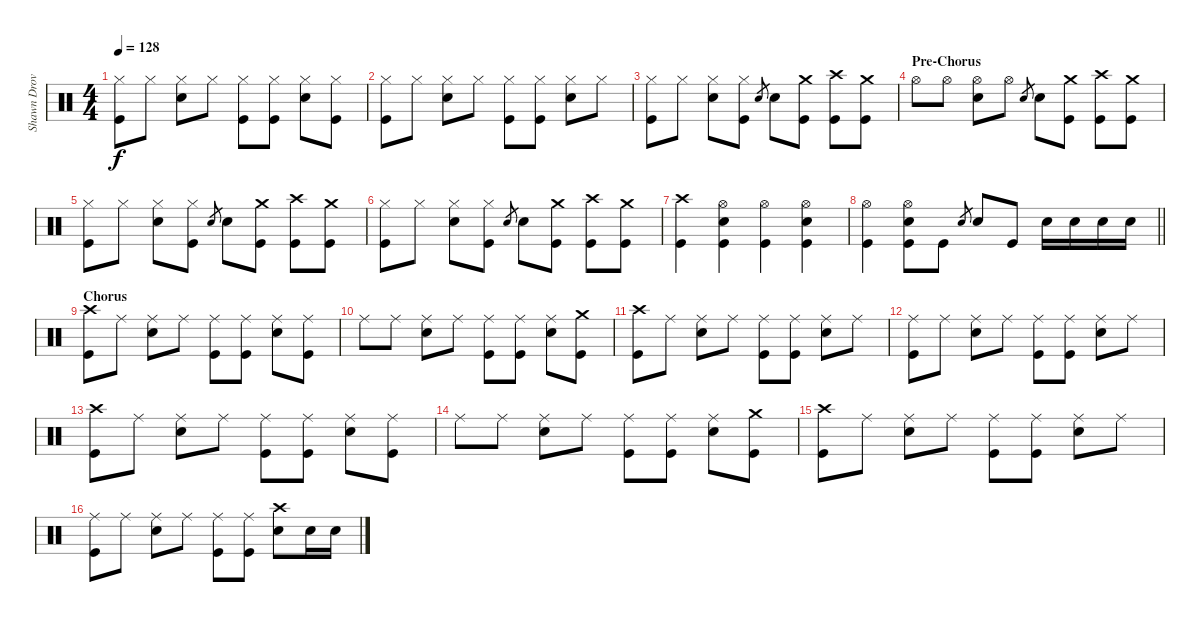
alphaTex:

\track ("Shawn Drover" "Shawn Drov") {instrument percussion}
\staff {score}
\articulation defaults
\ts (4 4)
\tempo 128
\clef neutral
\ks c
("Hi-Hat (closed)" "Kick (hit)").8{dy f} "Hi-Hat (closed)".8 ("Hi-Hat (closed)" "Snare (hit) 2").8 "Hi-Hat (closed)".8 ("Hi-Hat (closed)" "Kick (hit)").8 ("Hi-Hat (closed)" "Kick (hit)").8 ("Hi-Hat (closed)" "Snare (hit) 2").8 ("Hi-Hat (closed)" "Kick (hit)").8 |
("Hi-Hat (closed)" "Kick (hit)").8 "Hi-Hat (closed)".8 ("Hi-Hat (closed)" "Snare (hit) 2").8 "Hi-Hat (closed)".8 ("Hi-Hat (closed)" "Kick (hit)").8 ("Hi-Hat (closed)" "Kick (hit)").8 ("Hi-Hat (closed)" "Snare (hit) 2").8 "Hi-Hat (closed)".8 |
("Hi-Hat (closed)" "Kick (hit)").8 "Hi-Hat (closed)".8 ("Hi-Hat (closed)" "Snare (hit) 2").8 ("Hi-Hat (closed)" "Kick (hit)").8 "Snare (hit) 2".8{gr} "Snare (hit) 2".8 ("Crash medium (hit)" "Kick (hit)").8 ("Crash high (hit)" "Kick (hit)").8 ("Crash medium (hit)" "Kick (hit)").8 |
\section ("" "Pre-Chorus")
"Hi-Hat (open)".8 "Hi-Hat (open)".8 ("Hi-Hat (open)" "Snare (hit) 2").8 "Hi-Hat (open)".8 "Snare (hit) 2".8{gr} "Snare (hit) 2".8 ("Crash medium (hit)" "Kick (hit)").8 ("Crash high (hit)" "Kick (hit)").8 ("Crash medium (hit)" "Kick (hit)").8 |
("Hi-Hat (closed)" "Kick (hit)").8 "Hi-Hat (closed)".8 ("Hi-Hat (closed)" "Snare (hit) 2").8 ("Hi-Hat (closed)" "Kick (hit)").8 "Snare (hit) 2".8{gr} "Snare (hit) 2".8 ("Crash medium (hit)" "Kick (hit)").8 ("Crash high (hit)" "Kick (hit)").8 ("Crash medium (hit)" "Kick (hit)").8 |
("Hi-Hat (closed)" "Kick (hit)").8 "Hi-Hat (closed)".8 ("Hi-Hat (closed)" "Snare (hit) 2").8 ("Hi-Hat (closed)" "Kick (hit)").8 "Snare (hit) 2".8{gr} "Snare (hit) 2".8 ("Crash medium (hit)" "Kick (hit)").8 ("Crash high (hit)" "Kick (hit)").8 ("Crash medium (hit)" "Kick (hit)").8 |
("Crash high (hit)" "Kick (hit)").4 ("Hi-Hat (open)" "Snare (hit) 2" "Kick (hit)").4 ("Hi-Hat (open)" "Kick (hit)").4 ("Hi-Hat (open)" "Snare (hit) 2" "Kick (hit)").4 |
\barLineRight lightlight
("Hi-Hat (open)" "Kick (hit)").4 ("Hi-Hat (open)" "Snare (hit) 2" "Kick (hit)").8 "Kick (hit)".8 "Snare (hit) 2".8{gr} "Snare (hit) 2".8 "Kick (hit)".8 "Snare (hit) 2".16 "Snare (hit) 2".16 "Snare (hit) 2".16 "Snare (hit) 2".16 |
\section ("" "Chorus")
("Crash high (hit)" "Kick (hit)").8 "Ride (middle)".8 ("Ride (middle)" "Snare (hit) 2").8 "Ride (middle)".8 ("Ride (middle)" "Kick (hit)").8 ("Ride (middle)" "Kick (hit)").8 ("Ride (middle)" "Snare (hit) 2").8 ("Ride (middle)" "Kick (hit)").8 |
"Ride (middle)".8 "Ride (middle)".8 ("Ride (middle)" "Snare (hit) 2").8 "Ride (middle)".8 ("Ride (middle)" "Kick (hit)").8 ("Ride (middle)" "Kick (hit)").8 ("Ride (middle)" "Snare (hit) 2").8 ("Crash medium (hit)" "Kick (hit)").8 |
("Crash high (hit)" "Kick (hit)").8 "Ride (middle)".8 ("Ride (middle)" "Snare (hit) 2").8 "Ride (middle)".8 ("Ride (middle)" "Kick (hit)").8 ("Ride (middle)" "Kick (hit)").8 ("Ride (middle)" "Snare (hit) 2").8 "Ride (middle)".8 |
("Ride (middle)" "Kick (hit)").8 "Ride (middle)".8 ("Ride (middle)" "Snare (hit) 2").8 "Ride (middle)".8 ("Ride (middle)" "Kick (hit)").8 ("Ride (middle)" "Kick (hit)").8 ("Ride (middle)" "Snare (hit) 2").8 "Ride (middle)".8 |
("Crash high (hit)" "Kick (hit)").8 "Ride (middle)".8 ("Ride (middle)" "Snare (hit) 2").8 "Ride (middle)".8 ("Ride (middle)" "Kick (hit)").8 ("Ride (middle)" "Kick (hit)").8 ("Ride (middle)" "Snare (hit) 2").8 ("Ride (middle)" "Kick (hit)").8 |
"Ride (middle)".8 "Ride (middle)".8 ("Ride (middle)" "Snare (hit) 2").8 "Ride (middle)".8 ("Ride (middle)" "Kick (hit)").8 ("Ride (middle)" "Kick (hit)").8 ("Ride (middle)" "Snare (hit) 2").8 ("Crash medium (hit)" "Kick (hit)").8 |
("Crash high (hit)" "Kick (hit)").8 "Ride (middle)".8 ("Ride (middle)" "Snare (hit) 2").8 "Ride (middle)".8 ("Ride (middle)" "Kick (hit)").8 ("Ride (middle)" "Kick (hit)").8 ("Ride (middle)" "Snare (hit) 2").8 "Ride (middle)".8 |
("Ride (middle)" "Kick (hit)").8 "Ride (middle)".8 ("Ride (middle)" "Snare (hit) 2").8 "Ride (middle)".8 ("Ride (middle)" "Kick (hit)").8 ("Ride (middle)" "Kick (hit)").8 ("Crash high (hit)" "Snare (hit) 2").8 "Snare (hit) 2".16 "Snare (hit) 2".16
